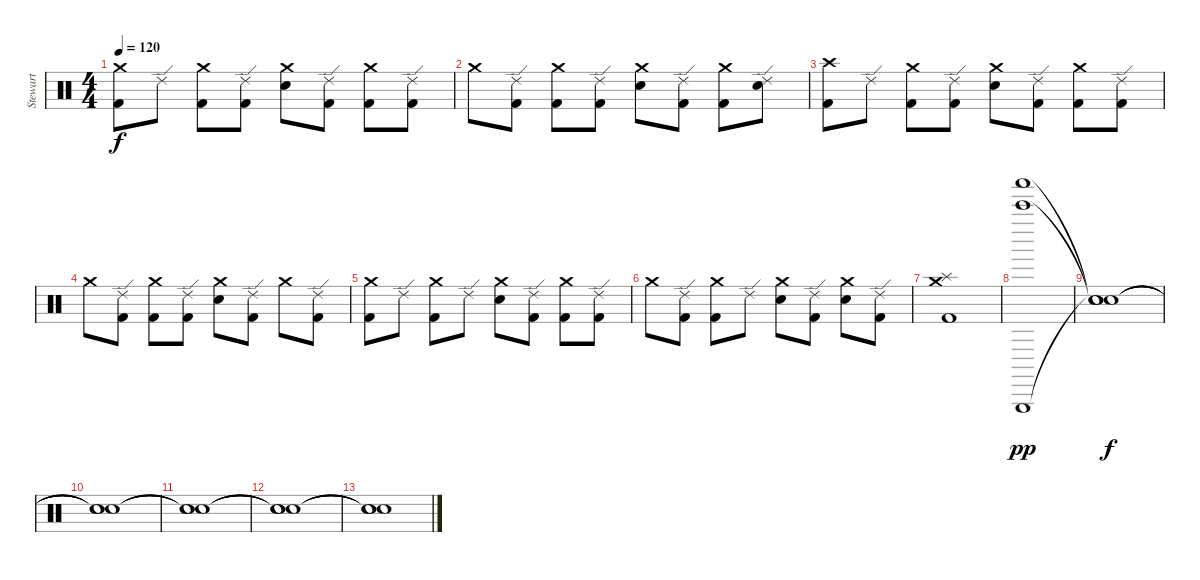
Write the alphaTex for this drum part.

\track ("Stewart" "Stewart") {instrument percussion}
\staff {score}
\articulation defaults
\ts (4 4)
\tempo 120
\clef neutral
\ks c
("Crash medium (hit)" "Kick (hit) 2").8{dy f} "Ride (edge) 2".8 ("Crash medium (hit)" "Kick (hit) 2").8 ("Ride (edge) 2" "Kick (hit) 2").8 ("Crash medium (hit)" "Electric Snare (hit)").8 ("Ride (edge) 2" "Kick (hit) 2").8 ("Crash medium (hit)" "Kick (hit) 2").8 ("Ride (edge) 2" "Kick (hit) 2").8 |
"Crash medium (hit)".8 ("Ride (edge) 2" "Kick (hit) 2").8 ("Crash medium (hit)" "Kick (hit) 2").8 ("Ride (edge) 2" "Kick (hit) 2").8 ("Crash medium (hit)" "Electric Snare (hit)").8 ("Ride (edge) 2" "Kick (hit) 2").8 ("Crash medium (hit)" "Kick (hit) 2").8 ("Ride (edge) 2" "Electric Snare (hit)").8 |
("Crash high (hit)" "Kick (hit) 2").8 "Ride (edge) 2".8 ("Crash medium (hit)" "Kick (hit) 2").8 ("Ride (edge) 2" "Kick (hit) 2").8 ("Crash medium (hit)" "Electric Snare (hit)").8 ("Ride (edge) 2" "Kick (hit) 2").8 ("Crash medium (hit)" "Kick (hit) 2").8 ("Ride (edge) 2" "Kick (hit) 2").8 |
"Crash medium (hit)".8 ("Ride (edge) 2" "Kick (hit) 2").8 ("Crash medium (hit)" "Kick (hit) 2").8 ("Ride (edge) 2" "Kick (hit) 2").8 ("Crash medium (hit)" "Electric Snare (hit)").8 ("Ride (edge) 2" "Kick (hit) 2").8 "Crash medium (hit)".8 ("Ride (edge) 2" "Kick (hit) 2").8 |
("Crash medium (hit)" "Kick (hit) 2").8 "Ride (edge) 2".8 ("Crash medium (hit)" "Kick (hit) 2").8 "Ride (edge) 2".8 ("Crash medium (hit)" "Electric Snare (hit)").8 ("Ride (edge) 2" "Kick (hit) 2").8 ("Crash medium (hit)" "Kick (hit) 2").8 ("Ride (edge) 2" "Kick (hit) 2").8 |
"Crash medium (hit)".8 ("Ride (edge) 2" "Kick (hit) 2").8 ("Crash medium (hit)" "Kick (hit) 2").8 "Ride (edge) 2".8 ("Crash medium (hit)" "Electric Snare (hit)").8 ("Ride (edge) 2" "Kick (hit) 2").8 ("Crash medium (hit)" "Electric Snare (hit)").8 ("Ride (edge) 2" "Kick (hit) 2").8 |
("Crash medium (hit)" "Splash (hit)" "Kick (hit) 2").1 |
("Shaker (hit)" "Bell Tree (hit)" "Triangle (hit)").1{dy pp} |
("Snare (hit)"{t} "Snare (hit)"{t} "Snare (hit)"{t}).1{dy f} |
("Snare (hit)"{t} "Snare (hit)"{t} "Snare (hit)"{t}).1 |
("Snare (hit)"{t} "Snare (hit)"{t} "Snare (hit)"{t}).1{volume 0} |
("Snare (hit)"{t} "Snare (hit)"{t} "Snare (hit)"{t}).1 |
("Snare (hit)"{t} "Snare (hit)"{t} "Snare (hit)"{t}).1
